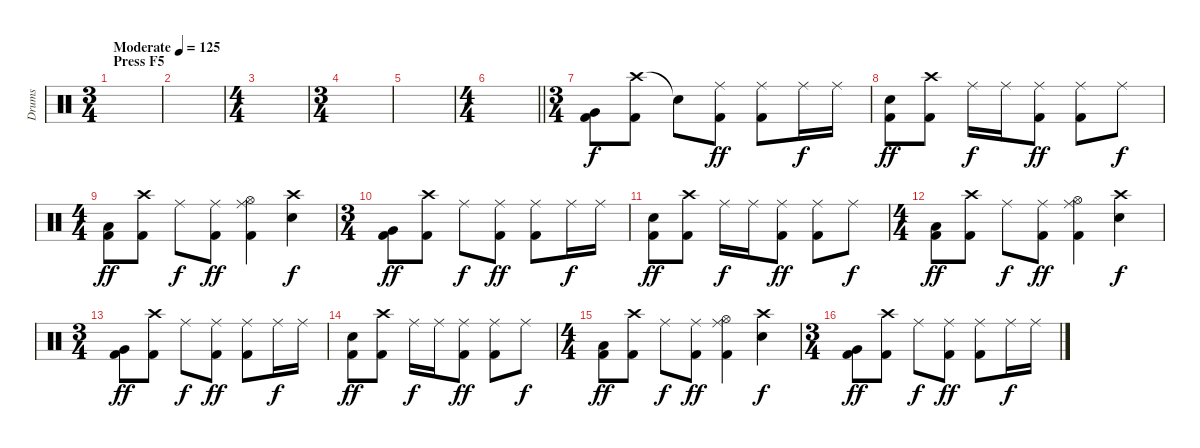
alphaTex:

\track ("Drums" "Drums") {instrument percussion}
\staff {score}
\articulation defaults
\ts (3 4)
\section ("" "Press F5")
\tempo (125 "Moderate")
\clef neutral
\ks c
|
|
\ts (4 4)
|
\ts (3 4)
|
|
\ts (4 4)
\barLineRight lightlight
|
\ts (3 4)
("Very Low Tom (hit)" "Kick (hit) 2").8 ("Crash high (hit)" "Kick (hit) 2").8 "Snare (hit)"{t}.8{dy f} ("Ride (middle)" "Kick (hit) 2").8{dy ff} ("Ride (middle)" "Kick (hit) 2").8 "Ride (middle)".16{dy f} "Ride (middle)".16 |
("Snare (hit) 2" "Kick (hit) 2").8{dy ff} ("Crash high (hit)" "Kick (hit) 2").8 "Ride (middle)".16{dy f} "Ride (middle)".16 ("Ride (middle)" "Kick (hit) 2").8{dy ff} ("Ride (middle)" "Kick (hit) 2").8 "Ride (middle)".8{dy f} |
\ts (4 4)
("Low Floor Tom (hit)" "Kick (hit) 2").8{dy ff} ("Crash high (hit)" "Kick (hit) 2").8 "Ride (middle)".8{dy f} ("Ride (middle)" "Kick (hit) 2").8{dy ff} ("Ride (middle)" "Hi-Hat (open)" "Kick (hit) 2").4 ("Crash high (hit)" "Snare (hit) 2").4{dy f} |
\ts (3 4)
("Very Low Tom (hit)" "Kick (hit) 2").8{dy ff} ("Crash high (hit)" "Kick (hit) 2").8 "Ride (middle)".8{dy f} ("Ride (middle)" "Kick (hit) 2").8{dy ff} ("Ride (middle)" "Kick (hit) 2").8 "Ride (middle)".16{dy f} "Ride (middle)".16 |
("Snare (hit) 2" "Kick (hit) 2").8{dy ff} ("Crash high (hit)" "Kick (hit) 2").8 "Ride (middle)".16{dy f} "Ride (middle)".16 ("Ride (middle)" "Kick (hit) 2").8{dy ff} ("Ride (middle)" "Kick (hit) 2").8 "Ride (middle)".8{dy f} |
\ts (4 4)
("Low Floor Tom (hit)" "Kick (hit) 2").8{dy ff} ("Crash high (hit)" "Kick (hit) 2").8 "Ride (middle)".8{dy f} ("Ride (middle)" "Kick (hit) 2").8{dy ff} ("Ride (middle)" "Hi-Hat (open)" "Kick (hit) 2").4 ("Crash high (hit)" "Snare (hit) 2").4{dy f} |
\ts (3 4)
("Very Low Tom (hit)" "Kick (hit) 2").8{dy ff} ("Crash high (hit)" "Kick (hit) 2").8 "Ride (middle)".8{dy f} ("Ride (middle)" "Kick (hit) 2").8{dy ff} ("Ride (middle)" "Kick (hit) 2").8 "Ride (middle)".16{dy f} "Ride (middle)".16 |
("Snare (hit) 2" "Kick (hit) 2").8{dy ff} ("Crash high (hit)" "Kick (hit) 2").8 "Ride (middle)".16{dy f} "Ride (middle)".16 ("Ride (middle)" "Kick (hit) 2").8{dy ff} ("Ride (middle)" "Kick (hit) 2").8 "Ride (middle)".8{dy f} |
\ts (4 4)
("Low Floor Tom (hit)" "Kick (hit) 2").8{dy ff} ("Crash high (hit)" "Kick (hit) 2").8 "Ride (middle)".8{dy f} ("Ride (middle)" "Kick (hit) 2").8{dy ff} ("Ride (middle)" "Hi-Hat (open)" "Kick (hit) 2").4 ("Crash high (hit)" "Snare (hit) 2").4{dy f} |
\ts (3 4)
("Very Low Tom (hit)" "Kick (hit) 2").8{dy ff} ("Crash high (hit)" "Kick (hit) 2").8 "Ride (middle)".8{dy f} ("Ride (middle)" "Kick (hit) 2").8{dy ff} ("Ride (middle)" "Kick (hit) 2").8 "Ride (middle)".16{dy f} "Ride (middle)".16
